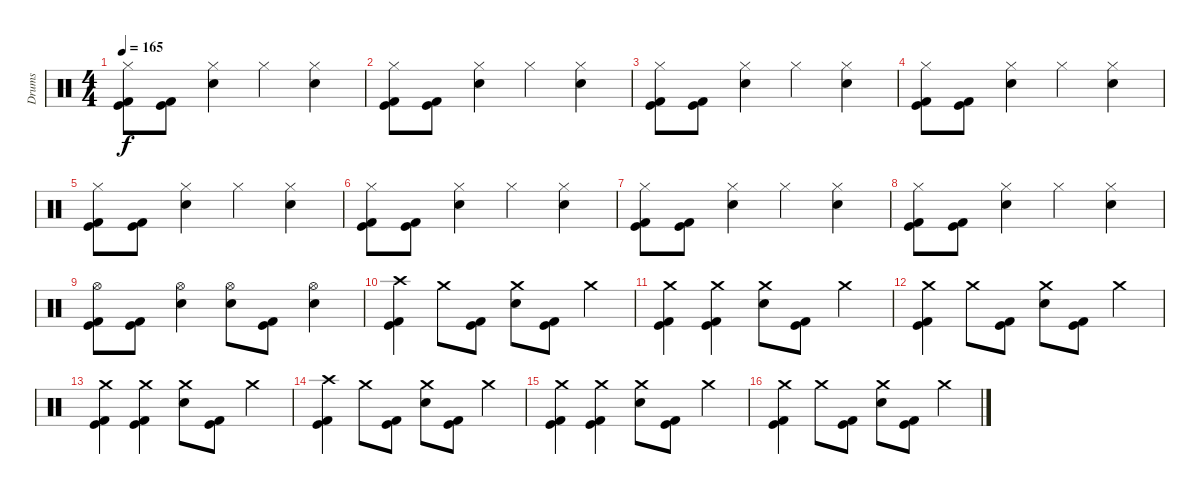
\track ("Drums" "Drums") {instrument percussion}
\staff {score}
\articulation defaults
\ts (4 4)
\tempo 165
\clef neutral
\ks c
("Hi-Hat (closed)" "Kick (hit)" "Kick (hit) 2").8{dy f} ("Kick (hit)" "Kick (hit) 2").8 ("Hi-Hat (closed)" "Electric Snare (hit)").4 "Hi-Hat (closed)".4 ("Hi-Hat (closed)" "Electric Snare (hit)").4 |
("Hi-Hat (closed)" "Kick (hit)" "Kick (hit) 2").8 ("Kick (hit)" "Kick (hit) 2").8 ("Hi-Hat (closed)" "Electric Snare (hit)").4 "Hi-Hat (closed)".4 ("Hi-Hat (closed)" "Electric Snare (hit)").4 |
("Hi-Hat (closed)" "Kick (hit)" "Kick (hit) 2").8 ("Kick (hit)" "Kick (hit) 2").8 ("Hi-Hat (closed)" "Electric Snare (hit)").4 "Hi-Hat (closed)".4 ("Hi-Hat (closed)" "Electric Snare (hit)").4 |
("Hi-Hat (closed)" "Kick (hit)" "Kick (hit) 2").8 ("Kick (hit)" "Kick (hit) 2").8 ("Hi-Hat (closed)" "Electric Snare (hit)").4 "Hi-Hat (closed)".4 ("Hi-Hat (closed)" "Electric Snare (hit)").4 |
("Hi-Hat (closed)" "Kick (hit)" "Kick (hit) 2").8 ("Kick (hit)" "Kick (hit) 2").8 ("Hi-Hat (closed)" "Electric Snare (hit)").4 "Hi-Hat (closed)".4 ("Hi-Hat (closed)" "Electric Snare (hit)").4 |
("Hi-Hat (closed)" "Kick (hit)" "Kick (hit) 2").8 ("Kick (hit)" "Kick (hit) 2").8 ("Hi-Hat (closed)" "Electric Snare (hit)").4 "Hi-Hat (closed)".4 ("Hi-Hat (closed)" "Electric Snare (hit)").4 |
("Hi-Hat (closed)" "Kick (hit)" "Kick (hit) 2").8 ("Kick (hit)" "Kick (hit) 2").8 ("Hi-Hat (closed)" "Electric Snare (hit)").4 "Hi-Hat (closed)".4 ("Hi-Hat (closed)" "Electric Snare (hit)").4 |
("Hi-Hat (closed)" "Kick (hit)" "Kick (hit) 2").8 ("Kick (hit)" "Kick (hit) 2").8 ("Hi-Hat (closed)" "Electric Snare (hit)").4 "Hi-Hat (closed)".4 ("Hi-Hat (closed)" "Electric Snare (hit)").4 |
("Hi-Hat (open)" "Kick (hit)" "Kick (hit) 2").8 ("Kick (hit)" "Kick (hit) 2").8 ("Hi-Hat (open)" "Electric Snare (hit)").4 ("Hi-Hat (open)" "Electric Snare (hit)").8 ("Kick (hit)" "Kick (hit) 2").8 ("Hi-Hat (open)" "Electric Snare (hit)").4 |
("Crash high (hit)" "Kick (hit) 2" "Kick (hit)").4 "Crash medium (hit)".8 ("Kick (hit)" "Kick (hit) 2").8 ("Crash medium (hit)" "Electric Snare (hit)").8 ("Kick (hit)" "Kick (hit) 2").8 "Crash medium (hit)".4 |
("Crash medium (hit)" "Kick (hit)" "Kick (hit) 2").4 ("Crash medium (hit)" "Kick (hit)" "Kick (hit) 2").4 ("Crash medium (hit)" "Electric Snare (hit)").8 ("Kick (hit)" "Kick (hit) 2").8 "Crash medium (hit)".4 |
("Crash medium (hit)" "Kick (hit) 2" "Kick (hit)").4 "Crash medium (hit)".8 ("Kick (hit)" "Kick (hit) 2").8 ("Crash medium (hit)" "Electric Snare (hit)").8 ("Kick (hit)" "Kick (hit) 2").8 "Crash medium (hit)".4 |
("Crash medium (hit)" "Kick (hit)" "Kick (hit) 2").4 ("Crash medium (hit)" "Kick (hit)" "Kick (hit) 2").4 ("Crash medium (hit)" "Electric Snare (hit)").8 ("Kick (hit)" "Kick (hit) 2").8 "Crash medium (hit)".4 |
("Crash high (hit)" "Kick (hit) 2" "Kick (hit)").4 "Crash medium (hit)".8 ("Kick (hit)" "Kick (hit) 2").8 ("Crash medium (hit)" "Electric Snare (hit)").8 ("Kick (hit)" "Kick (hit) 2").8 "Crash medium (hit)".4 |
("Crash medium (hit)" "Kick (hit)" "Kick (hit) 2").4 ("Crash medium (hit)" "Kick (hit)" "Kick (hit) 2").4 ("Crash medium (hit)" "Electric Snare (hit)").8 ("Kick (hit)" "Kick (hit) 2").8 "Crash medium (hit)".4 |
("Crash medium (hit)" "Kick (hit) 2" "Kick (hit)").4 "Crash medium (hit)".8 ("Kick (hit)" "Kick (hit) 2").8 ("Crash medium (hit)" "Electric Snare (hit)").8 ("Kick (hit)" "Kick (hit) 2").8 "Crash medium (hit)".4
